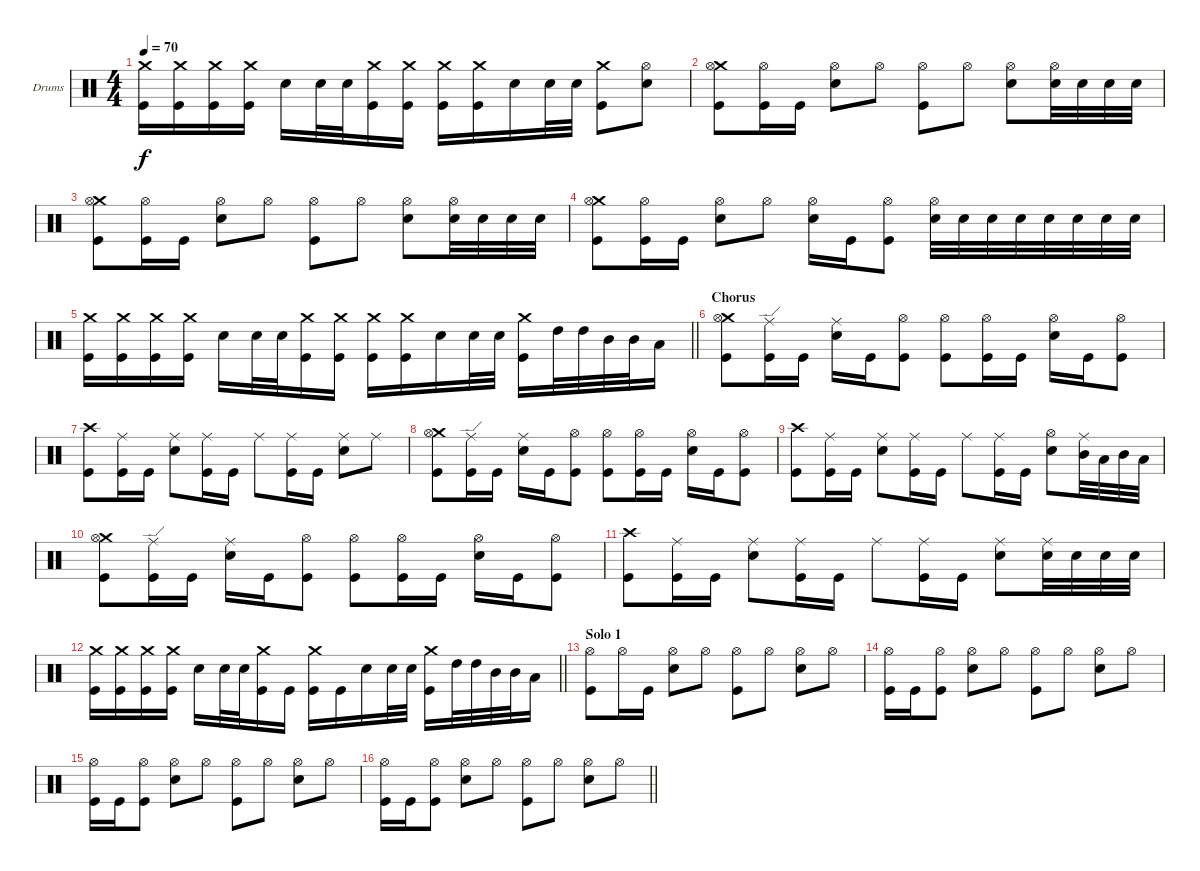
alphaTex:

\bracketExtendMode groupsimilarinstruments
\firstSystemTrackNameOrientation horizontal
\otherSystemsTrackNameOrientation horizontal
\track ("Drumkit" "Drums") {instrument percussion}
\staff {score}
\articulation defaults
\ts (4 4)
\tempo 70
\clef neutral
\ks c
("Crash medium (hit)" "Kick (hit)").16{dy f} ("Crash medium (hit)" "Kick (hit)").16 ("Crash medium (hit)" "Kick (hit)").16 ("Crash medium (hit)" "Kick (hit)").16 "Snare (hit) 2".16 "Snare (hit) 2".32 "Snare (hit) 2".32 ("Crash medium (hit)" "Kick (hit)").16 ("Crash medium (hit)" "Kick (hit)").16 ("Crash medium (hit)" "Kick (hit)").16 ("Crash medium (hit)" "Kick (hit)").16 "Snare (hit) 2".16 "Snare (hit) 2".32 "Snare (hit) 2".32 ("Crash medium (hit)" "Kick (hit)").8 ("Hi-Hat (open)" "Snare (hit) 2").8 |
("Crash medium (hit)" "Hi-Hat (open)" "Kick (hit)").8 ("Hi-Hat (open)" "Kick (hit)").16 "Kick (hit)".16 ("Hi-Hat (open)" "Snare (hit) 2").8 "Hi-Hat (open)".8 ("Hi-Hat (open)" "Kick (hit)").8 "Hi-Hat (open)".8 ("Hi-Hat (open)" "Snare (hit) 2").8 ("Hi-Hat (open)" "Snare (hit) 2").32 "Snare (hit) 2".32 "Snare (hit) 2".32 "Snare (hit) 2".32 |
("Crash medium (hit)" "Hi-Hat (open)" "Kick (hit)").8 ("Hi-Hat (open)" "Kick (hit)").16 "Kick (hit)".16 ("Hi-Hat (open)" "Snare (hit) 2").8 "Hi-Hat (open)".8 ("Hi-Hat (open)" "Kick (hit)").8 "Hi-Hat (open)".8 ("Hi-Hat (open)" "Snare (hit) 2").8 ("Hi-Hat (open)" "Snare (hit) 2").32 "Snare (hit) 2".32 "Snare (hit) 2".32 "Snare (hit) 2".32 |
("Crash medium (hit)" "Hi-Hat (open)" "Kick (hit)").8 ("Hi-Hat (open)" "Kick (hit)").16 "Kick (hit)".16 ("Hi-Hat (open)" "Snare (hit) 2").8 "Hi-Hat (open)".8 ("Hi-Hat (open)" "Snare (hit) 2").16 "Kick (hit)".16 ("Hi-Hat (open)" "Kick (hit)").8 ("Hi-Hat (open)" "Snare (hit) 2").32 "Snare (hit) 2".32 "Snare (hit) 2".32 "Snare (hit) 2".32 "Snare (hit) 2".32 "Snare (hit) 2".32 "Snare (hit) 2".32 "Snare (hit) 2".32 |
\barLineRight lightlight
("Crash medium (hit)" "Kick (hit)").16 ("Crash medium (hit)" "Kick (hit)").16 ("Crash medium (hit)" "Kick (hit)").16 ("Crash medium (hit)" "Kick (hit)").16 "Snare (hit) 2".16 "Snare (hit) 2".32 "Snare (hit) 2".32 ("Crash medium (hit)" "Kick (hit)").16 ("Crash medium (hit)" "Kick (hit)").16 ("Crash medium (hit)" "Kick (hit)").16 ("Crash medium (hit)" "Kick (hit)").16 "Snare (hit) 2".16 "Snare (hit) 2".32 "Snare (hit) 2".32 ("Crash medium (hit)" "Kick (hit)").16 "High Tom (hit)".32 "High Tom (hit)".32 "Mid Tom (hit)".32 "Mid Tom (hit)".32 "Low Tom (hit)".16 |
\section ("" "Chorus")
("Crash medium (hit)" "Hi-Hat (open)" "Kick (hit)").8 ("Ride (edge)" "Kick (hit)").16 "Kick (hit)".16 ("Ride (middle)" "Snare (hit) 2").16 "Kick (hit)".16 ("Hi-Hat (open)" "Kick (hit)").8 ("Hi-Hat (open)" "Kick (hit)").8 ("Hi-Hat (open)" "Kick (hit)").16 "Kick (hit)".16 ("Hi-Hat (open)" "Snare (hit) 2").16 "Kick (hit)".16 ("Hi-Hat (open)" "Kick (hit)").8 |
("Crash high (hit)" "Kick (hit)").8 ("Ride (middle)" "Kick (hit)").16 "Kick (hit)".16 ("Ride (middle)" "Snare (hit) 2").8 ("Ride (middle)" "Kick (hit)").16 "Kick (hit)".16 "Ride (middle)".8 ("Ride (middle)" "Kick (hit)").16 "Kick (hit)".16 ("Ride (middle)" "Snare (hit) 2").8 "Ride (middle)".8 |
("Crash medium (hit)" "Hi-Hat (open)" "Kick (hit)").8 ("Ride (edge)" "Kick (hit)").16 "Kick (hit)".16 ("Ride (middle)" "Snare (hit) 2").16 "Kick (hit)".16 ("Hi-Hat (open)" "Kick (hit)").8 ("Hi-Hat (open)" "Kick (hit)").8 ("Hi-Hat (open)" "Kick (hit)").16 "Kick (hit)".16 ("Hi-Hat (open)" "Snare (hit) 2").16 "Kick (hit)".16 ("Hi-Hat (open)" "Kick (hit)").8 |
("Crash high (hit)" "Kick (hit)").8 ("Ride (middle)" "Kick (hit)").16 "Kick (hit)".16 ("Ride (middle)" "Snare (hit) 2").8 ("Ride (middle)" "Kick (hit)").16 "Kick (hit)".16 "Ride (middle)".8 ("Ride (middle)" "Kick (hit)").16 "Kick (hit)".16 ("Hi-Hat (open)" "Snare (hit) 2").8 ("Ride (middle)" "Mid Tom (hit)").32 "Low Tom (hit)".32 "Mid Tom (hit)".32 "Low Tom (hit)".32 |
("Crash medium (hit)" "Hi-Hat (open)" "Kick (hit)").8 ("Ride (edge)" "Kick (hit)").16 "Kick (hit)".16 ("Ride (middle)" "Snare (hit) 2").16 "Kick (hit)".16 ("Hi-Hat (open)" "Kick (hit)").8 ("Hi-Hat (open)" "Kick (hit)").8 ("Hi-Hat (open)" "Kick (hit)").16 "Kick (hit)".16 ("Hi-Hat (open)" "Snare (hit) 2").16 "Kick (hit)".16 ("Hi-Hat (open)" "Kick (hit)").8 |
("Crash high (hit)" "Kick (hit)").8 ("Ride (middle)" "Kick (hit)").16 "Kick (hit)".16 ("Ride (middle)" "Snare (hit) 2").8 ("Ride (middle)" "Kick (hit)").16 "Kick (hit)".16 "Ride (middle)".8 ("Ride (middle)" "Kick (hit)").16 "Kick (hit)".16 ("Ride (middle)" "Snare (hit) 2").8 ("Ride (middle)" "Snare (hit) 2").32 "Snare (hit) 2".32 "Snare (hit) 2".32 "Snare (hit) 2".32 |
\barLineRight lightlight
("Crash medium (hit)" "Kick (hit)").16 ("Crash medium (hit)" "Kick (hit)").16 ("Crash medium (hit)" "Kick (hit)").16 ("Crash medium (hit)" "Kick (hit)").16 "Snare (hit) 2".16 "Snare (hit) 2".32 "Snare (hit) 2".32 ("Crash medium (hit)" "Kick (hit)").16 "Kick (hit)".16 ("Crash medium (hit)" "Kick (hit)").16 "Kick (hit)".16 "Snare (hit) 2".16 "Snare (hit) 2".32 "Snare (hit) 2".32 ("Crash medium (hit)" "Kick (hit)").16 "High Tom (hit)".32 "High Tom (hit)".32 "Mid Tom (hit)".32 "Mid Tom (hit)".32 "Low Tom (hit)".16 |
\section ("" "Solo 1")
("Hi-Hat (open)" "Kick (hit)").8 "Hi-Hat (open)".16 "Kick (hit)".16 ("Hi-Hat (open)" "Snare (hit) 2").8 "Hi-Hat (open)".8 ("Hi-Hat (open)" "Kick (hit)").8 "Hi-Hat (open)".8 ("Hi-Hat (open)" "Snare (hit) 2").8 "Hi-Hat (open)".8 |
("Hi-Hat (open)" "Kick (hit)").16 "Kick (hit)".16 ("Hi-Hat (open)" "Kick (hit)").8 ("Hi-Hat (open)" "Snare (hit) 2").8 "Hi-Hat (open)".8 ("Hi-Hat (open)" "Kick (hit)").8 "Hi-Hat (open)".8 ("Hi-Hat (open)" "Snare (hit) 2").8 "Hi-Hat (open)".8 |
("Hi-Hat (open)" "Kick (hit)").16 "Kick (hit)".16 ("Hi-Hat (open)" "Kick (hit)").8 ("Hi-Hat (open)" "Snare (hit) 2").8 "Hi-Hat (open)".8 ("Hi-Hat (open)" "Kick (hit)").8 "Hi-Hat (open)".8 ("Hi-Hat (open)" "Snare (hit) 2").8 "Hi-Hat (open)".8 |
\barLineRight lightlight
("Hi-Hat (open)" "Kick (hit)").16 "Kick (hit)".16 ("Hi-Hat (open)" "Kick (hit)").8 ("Hi-Hat (open)" "Snare (hit) 2").8 "Hi-Hat (open)".8 ("Hi-Hat (open)" "Kick (hit)").8 "Hi-Hat (open)".8 ("Hi-Hat (open)" "Snare (hit) 2").8 "Hi-Hat (open)".8
